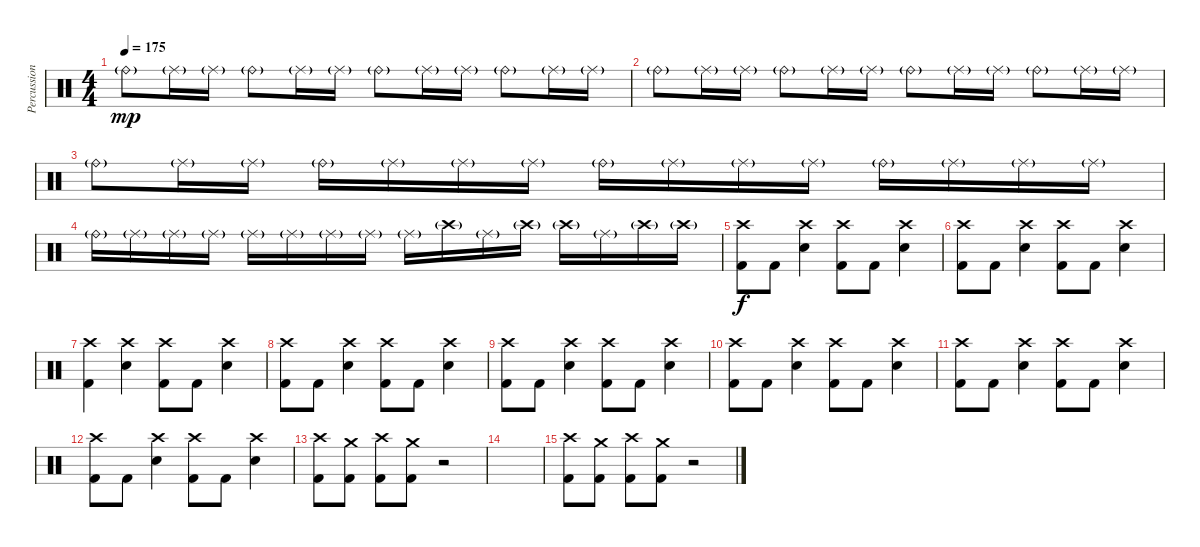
\track ("Percussion" "Percussion") {instrument percussion}
\staff {score}
\articulation defaults
\ts (4 4)
\tempo 175
\clef neutral
\ks c "Ride (bell)"{g}.8{dy mp} "Ride (middle)"{g}.16 "Ride (middle)"{g}.16 "Ride (bell)"{g}.8 "Ride (middle)"{g}.16 "Ride (middle)"{g}.16 "Ride (bell)"{g}.8 "Ride (middle)"{g}.16 "Ride (middle)"{g}.16 "Ride (bell)"{g}.8 "Ride (middle)"{g}.16 "Ride (middle)"{g}.16
|
"Ride (bell)"{g}.8 "Ride (middle)"{g}.16 "Ride (middle)"{g}.16 "Ride (bell)"{g}.8 "Ride (middle)"{g}.16 "Ride (middle)"{g}.16 "Ride (bell)"{g}.8 "Ride (middle)"{g}.16 "Ride (middle)"{g}.16 "Ride (bell)"{g}.8 "Ride (middle)"{g}.16 "Ride (middle)"{g}.16 |
"Ride (bell)"{g}.8 "Ride (middle)"{g}.16 "Ride (middle)"{g}.16 "Ride (bell)"{g}.16 "Ride (middle)"{g}.16 "Ride (middle)"{g}.16 "Ride (middle)"{g}.16 "Ride (bell)"{g}.16 "Ride (middle)"{g}.16 "Ride (middle)"{g}.16 "Ride (middle)"{g}.16 "Ride (bell)"{g}.16 "Ride (middle)"{g}.16 "Ride (middle)"{g}.16 "Ride (middle)"{g}.16 |
"Ride (bell)"{g}.16 "Ride (middle)"{g}.16 "Ride (middle)"{g}.16 "Ride (middle)"{g}.16 "Ride (middle)"{g}.16 "Ride (middle)"{g}.16 "Ride (middle)"{g}.16 "Ride (middle)"{g}.16 "Ride (middle)"{g}.16 "Crash high (hit)"{g}.16 "Ride (middle)"{g}.16 "Crash high (hit)"{g}.16 "Crash high (hit)"{g}.16 "Ride (middle)"{g}.16 "Crash high (hit)"{g}.16 "Crash high (hit)"{g}.16 |
("Crash high (hit)" "Kick (hit) 2").8{dy f} "Kick (hit) 2".8 ("Crash high (hit)" "Electric Snare (hit)").4 ("Crash high (hit)" "Kick (hit) 2").8 "Kick (hit) 2".8 ("Crash high (hit)" "Electric Snare (hit)").4 |
("Crash high (hit)" "Kick (hit) 2").8 "Kick (hit) 2".8 ("Crash high (hit)" "Electric Snare (hit)").4 ("Crash high (hit)" "Kick (hit) 2").8 "Kick (hit) 2".8 ("Crash high (hit)" "Electric Snare (hit)").4 |
("Crash high (hit)" "Kick (hit) 2").4 ("Crash high (hit)" "Electric Snare (hit)").4 ("Crash high (hit)" "Kick (hit) 2").8 "Kick (hit) 2".8 ("Crash high (hit)" "Electric Snare (hit)").4 |
("Crash high (hit)" "Kick (hit) 2").8 "Kick (hit) 2".8 ("Crash high (hit)" "Electric Snare (hit)").4 ("Crash high (hit)" "Kick (hit) 2").8 "Kick (hit) 2".8 ("Crash high (hit)" "Electric Snare (hit)").4 |
("Crash high (hit)" "Kick (hit) 2").8 "Kick (hit) 2".8 ("Crash high (hit)" "Electric Snare (hit)").4 ("Crash high (hit)" "Kick (hit) 2").8 "Kick (hit) 2".8 ("Crash high (hit)" "Electric Snare (hit)").4 |
("Crash high (hit)" "Kick (hit) 2").8 "Kick (hit) 2".8 ("Crash high (hit)" "Electric Snare (hit)").4 ("Crash high (hit)" "Kick (hit) 2").8 "Kick (hit) 2".8 ("Crash high (hit)" "Electric Snare (hit)").4 |
("Crash high (hit)" "Kick (hit) 2").8 "Kick (hit) 2".8 ("Crash high (hit)" "Electric Snare (hit)").4 ("Crash high (hit)" "Kick (hit) 2").8 "Kick (hit) 2".8 ("Crash high (hit)" "Electric Snare (hit)").4 |
("Crash high (hit)" "Kick (hit) 2").8 "Kick (hit) 2".8 ("Crash high (hit)" "Electric Snare (hit)").4 ("Crash high (hit)" "Kick (hit) 2").8 "Kick (hit) 2".8 ("Crash high (hit)" "Electric Snare (hit)").4 |
("Crash high (hit)" "Kick (hit) 2").8 ("Crash medium (hit)" "Kick (hit) 2").8 ("Crash high (hit)" "Kick (hit) 2").8 ("Crash medium (hit)" "Kick (hit) 2").8 r.2 |
|
("Crash high (hit)" "Kick (hit) 2").8 ("Crash medium (hit)" "Kick (hit) 2").8 ("Crash high (hit)" "Kick (hit) 2").8 ("Crash medium (hit)" "Kick (hit) 2").8 r.2
